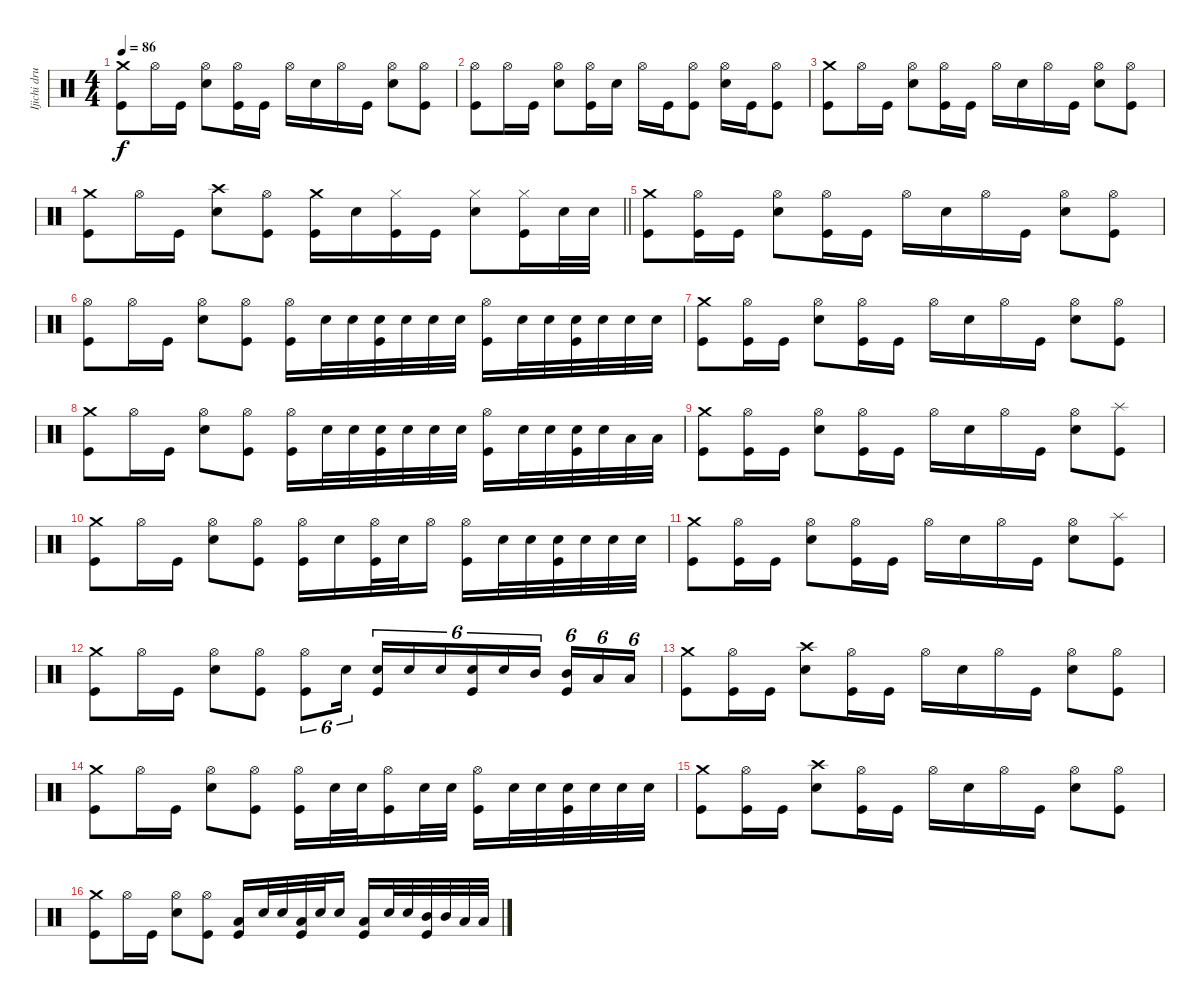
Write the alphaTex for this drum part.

\track ("Ijichi drums" "Ijichi dru") {instrument percussion}
\staff {score}
\articulation defaults
\ts (4 4)
\tempo 86
\clef neutral
\ks c
("Crash medium (hit)" "Kick (hit)").8{dy f} "Hi-Hat (open)".16 "Kick (hit)".16 ("Hi-Hat (open)" "Electric Snare (hit)").8 ("Hi-Hat (open)" "Kick (hit)").16 "Kick (hit)".16 "Hi-Hat (open)".16 "Electric Snare (hit)".16 "Hi-Hat (open)".16 "Kick (hit)".16 ("Hi-Hat (open)" "Electric Snare (hit)").8 ("Hi-Hat (open)" "Kick (hit)").8 |
("Hi-Hat (open)" "Kick (hit)").8 "Hi-Hat (open)".16 "Kick (hit)".16 ("Hi-Hat (open)" "Electric Snare (hit)").8 ("Hi-Hat (open)" "Kick (hit)").16 "Electric Snare (hit)".16 "Hi-Hat (open)".16 "Kick (hit)".16 ("Hi-Hat (open)" "Kick (hit)").8 ("Hi-Hat (open)" "Electric Snare (hit)").16 "Kick (hit)".16 ("Hi-Hat (open)" "Kick (hit)").8 |
("Crash medium (hit)" "Kick (hit)").8 "Hi-Hat (open)".16 "Kick (hit)".16 ("Hi-Hat (open)" "Electric Snare (hit)").8 ("Hi-Hat (open)" "Kick (hit)").16 "Kick (hit)".16 "Hi-Hat (open)".16 "Electric Snare (hit)".16 "Hi-Hat (open)".16 "Kick (hit)".16 ("Hi-Hat (open)" "Electric Snare (hit)").8 ("Hi-Hat (open)" "Kick (hit)").8 |
\barLineRight lightlight
("Crash medium (hit)" "Kick (hit)").8 "Hi-Hat (open)".16 "Kick (hit)".16 ("Crash high (hit)" "Electric Snare (hit)").8 ("Hi-Hat (open)" "Kick (hit)").8 ("Crash medium (hit)" "Kick (hit)").16 "Electric Snare (hit)".16 ("Hi-Hat (closed)" "Kick (hit)").16 "Kick (hit)".16 ("Hi-Hat (closed)" "Electric Snare (hit)").8 ("Hi-Hat (closed)" "Kick (hit)").16 "Electric Snare (hit)".32 "Electric Snare (hit)".32 |
("Crash medium (hit)" "Kick (hit)").8 ("Hi-Hat (open)" "Kick (hit)").16 "Kick (hit)".16 ("Hi-Hat (open)" "Electric Snare (hit)").8 ("Hi-Hat (open)" "Kick (hit)").16 "Kick (hit)".16 "Hi-Hat (open)".16 "Electric Snare (hit)".16 "Hi-Hat (open)".16 "Kick (hit)".16 ("Hi-Hat (open)" "Electric Snare (hit)").8 ("Hi-Hat (open)" "Kick (hit)").8 |
("Hi-Hat (open)" "Kick (hit)").8 "Hi-Hat (open)".16 "Kick (hit)".16 ("Hi-Hat (open)" "Electric Snare (hit)").8 ("Hi-Hat (open)" "Kick (hit)").8 ("Hi-Hat (open)" "Kick (hit)").16 "Electric Snare (hit)".32 "Electric Snare (hit)".32 ("Electric Snare (hit)" "Kick (hit)").32 "Electric Snare (hit)".32 "Electric Snare (hit)".32 "Electric Snare (hit)".32 ("Hi-Hat (open)" "Kick (hit)").16 "Electric Snare (hit)".32 "Electric Snare (hit)".32 ("Electric Snare (hit)" "Kick (hit)").32 "Electric Snare (hit)".32 "Electric Snare (hit)".32 "Electric Snare (hit)".32 |
("Crash medium (hit)" "Kick (hit)").8 ("Hi-Hat (open)" "Kick (hit)").16 "Kick (hit)".16 ("Hi-Hat (open)" "Electric Snare (hit)").8 ("Hi-Hat (open)" "Kick (hit)").16 "Kick (hit)".16 "Hi-Hat (open)".16 "Electric Snare (hit)".16 "Hi-Hat (open)".16 "Kick (hit)".16 ("Hi-Hat (open)" "Electric Snare (hit)").8 ("Hi-Hat (open)" "Kick (hit)").8 |
("Crash medium (hit)" "Kick (hit)").8 "Hi-Hat (open)".16 "Kick (hit)".16 ("Hi-Hat (open)" "Electric Snare (hit)").8 ("Hi-Hat (open)" "Kick (hit)").8 ("Hi-Hat (open)" "Kick (hit)").16 "Electric Snare (hit)".32 "Electric Snare (hit)".32 ("Electric Snare (hit)" "Kick (hit)").32 "Electric Snare (hit)".32 "Electric Snare (hit)".32 "Electric Snare (hit)".32 ("Hi-Hat (open)" "Kick (hit)").16 "Electric Snare (hit)".32 "Electric Snare (hit)".32 ("Electric Snare (hit)" "Kick (hit)").32 "Electric Snare (hit)".32 "Low Tom (hit)".32 "Low Tom (hit)".32 |
("Crash medium (hit)" "Kick (hit)").8 ("Hi-Hat (open)" "Kick (hit)").16 "Kick (hit)".16 ("Hi-Hat (open)" "Electric Snare (hit)").8 ("Hi-Hat (open)" "Kick (hit)").16 "Kick (hit)".16 "Hi-Hat (open)".16 "Electric Snare (hit)".16 "Hi-Hat (open)".16 "Kick (hit)".16 ("Hi-Hat (open)" "Electric Snare (hit)").8 ("Splash (hit)" "Kick (hit)").8 |
("Crash medium (hit)" "Kick (hit)").8 "Hi-Hat (open)".16 "Kick (hit)".16 ("Hi-Hat (open)" "Electric Snare (hit)").8 ("Hi-Hat (open)" "Kick (hit)").8 ("Hi-Hat (open)" "Kick (hit)").16 "Electric Snare (hit)".16 ("Hi-Hat (open)" "Kick (hit)").32 "Electric Snare (hit)".32 "Hi-Hat (open)".16 ("Hi-Hat (open)" "Kick (hit)").16 "Electric Snare (hit)".32 "Electric Snare (hit)".32 ("Electric Snare (hit)" "Kick (hit)").32 "Electric Snare (hit)".32 "Electric Snare (hit)".32 "Electric Snare (hit)".32 |
("Crash medium (hit)" "Kick (hit)").8 ("Hi-Hat (open)" "Kick (hit)").16 "Kick (hit)".16 ("Hi-Hat (open)" "Electric Snare (hit)").8 ("Hi-Hat (open)" "Kick (hit)").16 "Kick (hit)".16 "Hi-Hat (open)".16 "Electric Snare (hit)".16 "Hi-Hat (open)".16 "Kick (hit)".16 ("Hi-Hat (open)" "Electric Snare (hit)").8 ("Splash (hit)" "Kick (hit)").8 |
("Crash medium (hit)" "Kick (hit)").8 "Hi-Hat (open)".16 "Kick (hit)".16 ("Hi-Hat (open)" "Electric Snare (hit)").8 ("Hi-Hat (open)" "Kick (hit)").8 ("Hi-Hat (open)" "Kick (hit)").8{tu (6 4)} "Electric Snare (hit)".16{tu (6 4) beam splitsecondary} ("Electric Snare (hit)" "Kick (hit)").16{tu (6 4)} "Electric Snare (hit)".16{tu (6 4)} "Electric Snare (hit)".16{tu (6 4)} ("Electric Snare (hit)" "Kick (hit)").16{tu (6 4)} "Electric Snare (hit)".16{tu (6 4)} "Mid Tom (hit)".16{tu (6 4) beam splitsecondary} ("Mid Tom (hit)" "Kick (hit)").16{tu (6 4)} "Low Tom (hit)".16{tu (6 4)} "Low Tom (hit)".16{tu (6 4)} |
("Crash medium (hit)" "Kick (hit)").8 ("Hi-Hat (open)" "Kick (hit)").16 "Kick (hit)".16 ("Crash high (hit)" "Electric Snare (hit)").8 ("Hi-Hat (open)" "Kick (hit)").16 "Kick (hit)".16 "Hi-Hat (open)".16 "Electric Snare (hit)".16 "Hi-Hat (open)".16 "Kick (hit)".16 ("Hi-Hat (open)" "Electric Snare (hit)").8 ("Hi-Hat (open)" "Kick (hit)").8 |
("Crash medium (hit)" "Kick (hit)").8 "Hi-Hat (open)".16 "Kick (hit)".16 ("Hi-Hat (open)" "Electric Snare (hit)").8 ("Hi-Hat (open)" "Kick (hit)").8 ("Hi-Hat (open)" "Kick (hit)").16 "Electric Snare (hit)".32 "Electric Snare (hit)".32 ("Hi-Hat (open)" "Kick (hit)").16 "Electric Snare (hit)".32 "Electric Snare (hit)".32 ("Hi-Hat (open)" "Kick (hit)").16 "Electric Snare (hit)".32 "Electric Snare (hit)".32 ("Electric Snare (hit)" "Kick (hit)").32 "Electric Snare (hit)".32 "Electric Snare (hit)".32 "Electric Snare (hit)".32 |
("Crash medium (hit)" "Kick (hit)").8 ("Hi-Hat (open)" "Kick (hit)").16 "Kick (hit)".16 ("Crash high (hit)" "Electric Snare (hit)").8 ("Hi-Hat (open)" "Kick (hit)").16 "Kick (hit)".16 "Hi-Hat (open)".16 "Electric Snare (hit)".16 "Hi-Hat (open)".16 "Kick (hit)".16 ("Hi-Hat (open)" "Electric Snare (hit)").8 ("Hi-Hat (open)" "Kick (hit)").8 |
("Crash medium (hit)" "Kick (hit)").8 "Hi-Hat (open)".16 "Kick (hit)".16 ("Hi-Hat (open)" "Electric Snare (hit)").8 ("Hi-Hat (open)" "Kick (hit)").8 ("Low Tom (hit)" "Kick (hit)").16 "Electric Snare (hit)".32 "Electric Snare (hit)".32 ("Low Tom (hit)" "Kick (hit)").32 "Electric Snare (hit)".32 "Electric Snare (hit)".16 ("Low Tom (hit)" "Kick (hit)").16 "Electric Snare (hit)".32 "Electric Snare (hit)".32 ("Mid Tom (hit)" "Kick (hit)").32 "Mid Tom (hit)".32 "Low Tom (hit)".32 "Low Tom (hit)".32
